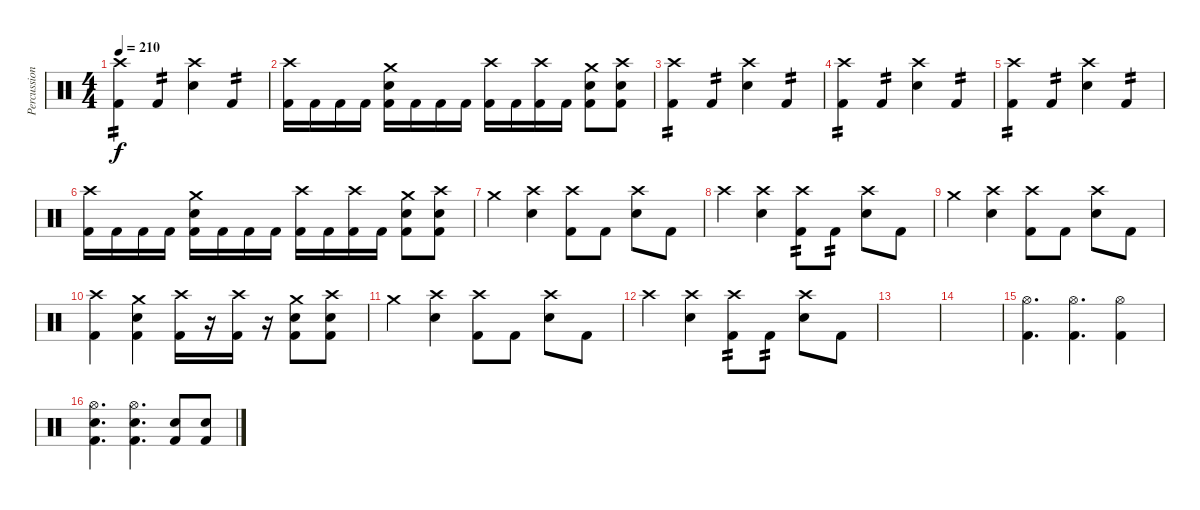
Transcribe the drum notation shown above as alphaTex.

\track ("Percussion" "Percussion") {instrument percussion}
\staff {score}
\articulation defaults
\ts (4 4)
\tempo 210
\clef neutral
\ks c
("Crash high (hit)" "Kick (hit) 2").4{tp 2 dy f} "Kick (hit) 2".4{tp 2} ("Crash high (hit)" "Electric Snare (hit)").4 "Kick (hit) 2".4{tp 2} |
("Crash high (hit)" "Kick (hit) 2").16 "Kick (hit) 2".16 "Kick (hit) 2".16 "Kick (hit) 2".16 ("Crash medium (hit)" "Electric Snare (hit)" "Kick (hit) 2").16 "Kick (hit) 2".16 "Kick (hit) 2".16 "Kick (hit) 2".16 ("Crash high (hit)" "Kick (hit) 2").16 "Kick (hit) 2".16 ("Crash high (hit)" "Kick (hit) 2").16 "Kick (hit) 2".16 ("Crash medium (hit)" "Electric Snare (hit)" "Kick (hit) 2").8 ("Crash high (hit)" "Electric Snare (hit)" "Kick (hit) 2").8 |
("Crash high (hit)" "Kick (hit) 2").4{tp 2} "Kick (hit) 2".4{tp 2} ("Crash high (hit)" "Electric Snare (hit)").4 "Kick (hit) 2".4{tp 2} |
("Crash high (hit)" "Kick (hit) 2").4{tp 2} "Kick (hit) 2".4{tp 2} ("Crash high (hit)" "Electric Snare (hit)").4 "Kick (hit) 2".4{tp 2} |
("Crash high (hit)" "Kick (hit) 2").4{tp 2} "Kick (hit) 2".4{tp 2} ("Crash high (hit)" "Electric Snare (hit)").4 "Kick (hit) 2".4{tp 2} |
("Crash high (hit)" "Kick (hit) 2").16 "Kick (hit) 2".16 "Kick (hit) 2".16 "Kick (hit) 2".16 ("Crash medium (hit)" "Electric Snare (hit)" "Kick (hit) 2").16 "Kick (hit) 2".16 "Kick (hit) 2".16 "Kick (hit) 2".16 ("Crash high (hit)" "Kick (hit) 2").16 "Kick (hit) 2".16 ("Crash high (hit)" "Kick (hit) 2").16 "Kick (hit) 2".16 ("Crash medium (hit)" "Electric Snare (hit)" "Kick (hit) 2").8 ("Crash high (hit)" "Electric Snare (hit)" "Kick (hit) 2").8 |
"Crash medium (hit)".4 ("Crash high (hit)" "Electric Snare (hit)").4 ("Crash high (hit)" "Kick (hit) 2").8 "Kick (hit) 2".8 ("Crash high (hit)" "Electric Snare (hit)").8 "Kick (hit) 2".8 |
"Crash high (hit)".4 ("Crash high (hit)" "Electric Snare (hit)").4 ("Crash high (hit)" "Kick (hit) 2").8{tp 2} "Kick (hit) 2".8{tp 2} ("Crash high (hit)" "Electric Snare (hit)").8 "Kick (hit) 2".8 |
"Crash medium (hit)".4 ("Crash high (hit)" "Electric Snare (hit)").4 ("Crash high (hit)" "Kick (hit) 2").8 "Kick (hit) 2".8 ("Crash high (hit)" "Electric Snare (hit)").8 "Kick (hit) 2".8 |
("Crash high (hit)" "Kick (hit) 2").4 ("Crash medium (hit)" "Electric Snare (hit)" "Kick (hit) 2").4 ("Crash high (hit)" "Kick (hit) 2").16 r.16 ("Crash high (hit)" "Kick (hit) 2").16 r.16 ("Crash medium (hit)" "Electric Snare (hit)" "Kick (hit) 2").8 ("Crash high (hit)" "Electric Snare (hit)" "Kick (hit) 2").8 |
"Crash medium (hit)".4 ("Crash high (hit)" "Electric Snare (hit)").4 ("Crash high (hit)" "Kick (hit) 2").8 "Kick (hit) 2".8 ("Crash high (hit)" "Electric Snare (hit)").8 "Kick (hit) 2".8 |
"Crash high (hit)".4 ("Crash high (hit)" "Electric Snare (hit)").4 ("Crash high (hit)" "Kick (hit) 2").8{tp 2} "Kick (hit) 2".8{tp 2} ("Crash high (hit)" "Electric Snare (hit)").8 "Kick (hit) 2".8 |
|
|
("Hi-Hat (open)" "Kick (hit) 2").4{d} ("Hi-Hat (open)" "Kick (hit) 2").4{d} ("Hi-Hat (open)" "Kick (hit) 2").4 |
("Hi-Hat (open)" "Electric Snare (hit)" "Kick (hit) 2").4{d} ("Hi-Hat (open)" "Electric Snare (hit)" "Kick (hit) 2").4{d} ("Electric Snare (hit)" "Kick (hit) 2").8 ("Electric Snare (hit)" "Kick (hit) 2").8
